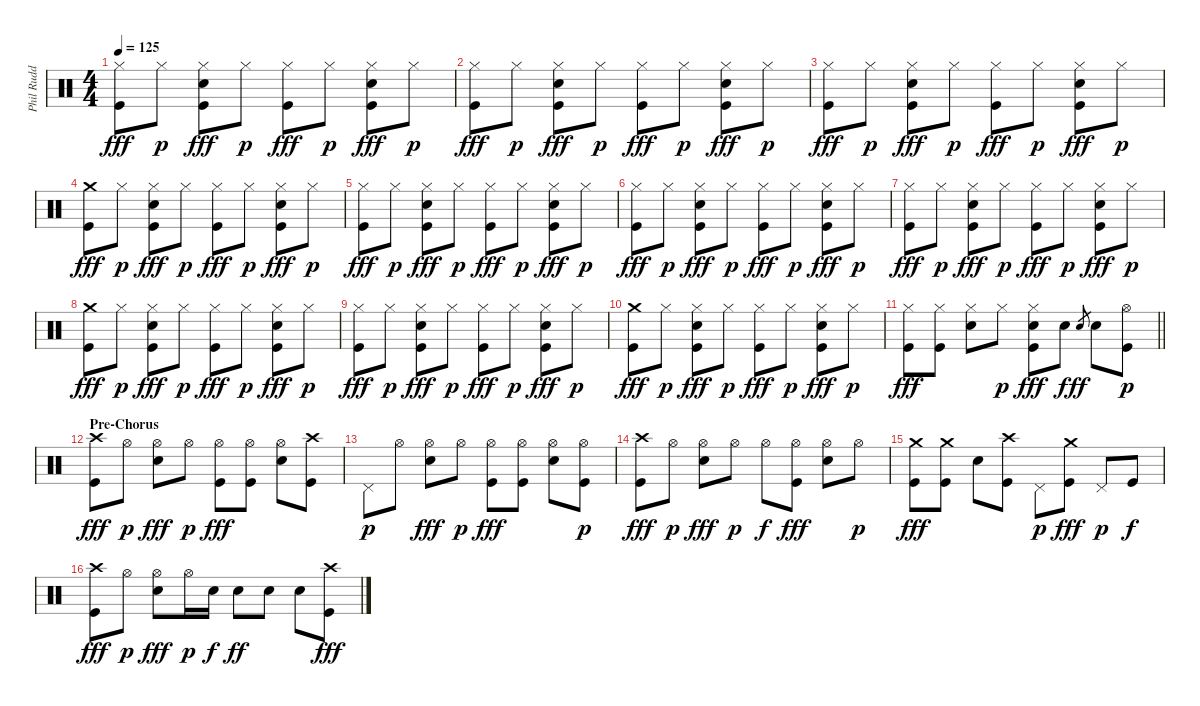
\track ("Phil Rudd" "Phil Rudd") {instrument percussion}
\staff {score}
\articulation defaults
\ts (4 4)
\tempo 125
\clef neutral
\ks c
("Hi-Hat (closed)" "Kick (hit)").8{dy fff} "Hi-Hat (closed)".8{dy p} ("Hi-Hat (closed)" "Snare (hit) 2" "Kick (hit)").8{dy fff} "Hi-Hat (closed)".8{dy p} ("Hi-Hat (closed)" "Kick (hit)").8{dy fff} "Hi-Hat (closed)".8{dy p} ("Hi-Hat (closed)" "Snare (hit) 2" "Kick (hit)").8{dy fff} "Hi-Hat (closed)".8{dy p} |
("Hi-Hat (closed)" "Kick (hit)").8{dy fff} "Hi-Hat (closed)".8{dy p} ("Hi-Hat (closed)" "Snare (hit) 2" "Kick (hit)").8{dy fff} "Hi-Hat (closed)".8{dy p} ("Hi-Hat (closed)" "Kick (hit)").8{dy fff} "Hi-Hat (closed)".8{dy p} ("Hi-Hat (closed)" "Snare (hit) 2" "Kick (hit)").8{dy fff} "Hi-Hat (closed)".8{dy p} |
("Hi-Hat (closed)" "Kick (hit)").8{dy fff} "Hi-Hat (closed)".8{dy p} ("Hi-Hat (closed)" "Snare (hit) 2" "Kick (hit)").8{dy fff} "Hi-Hat (closed)".8{dy p} ("Hi-Hat (closed)" "Kick (hit)").8{dy fff} "Hi-Hat (closed)".8{dy p} ("Hi-Hat (closed)" "Snare (hit) 2" "Kick (hit)").8{dy fff} "Hi-Hat (closed)".8{dy p} |
("Crash medium (hit)" "Kick (hit)").8{dy fff} "Hi-Hat (closed)".8{dy p} ("Hi-Hat (closed)" "Snare (hit) 2" "Kick (hit)").8{dy fff} "Hi-Hat (closed)".8{dy p} ("Hi-Hat (closed)" "Kick (hit)").8{dy fff} "Hi-Hat (closed)".8{dy p} ("Hi-Hat (closed)" "Snare (hit) 2" "Kick (hit)").8{dy fff} "Hi-Hat (closed)".8{dy p} |
("Hi-Hat (closed)" "Kick (hit)").8{dy fff} "Hi-Hat (closed)".8{dy p} ("Hi-Hat (closed)" "Snare (hit) 2" "Kick (hit)").8{dy fff} "Hi-Hat (closed)".8{dy p} ("Hi-Hat (closed)" "Kick (hit)").8{dy fff} "Hi-Hat (closed)".8{dy p} ("Hi-Hat (closed)" "Snare (hit) 2" "Kick (hit)").8{dy fff} "Hi-Hat (closed)".8{dy p} |
("Hi-Hat (closed)" "Kick (hit)").8{dy fff} "Hi-Hat (closed)".8{dy p} ("Hi-Hat (closed)" "Snare (hit) 2" "Kick (hit)").8{dy fff} "Hi-Hat (closed)".8{dy p} ("Hi-Hat (closed)" "Kick (hit)").8{dy fff} "Hi-Hat (closed)".8{dy p} ("Hi-Hat (closed)" "Snare (hit) 2" "Kick (hit)").8{dy fff} "Hi-Hat (closed)".8{dy p} |
("Hi-Hat (closed)" "Kick (hit)").8{dy fff} "Hi-Hat (closed)".8{dy p} ("Hi-Hat (closed)" "Snare (hit) 2" "Kick (hit)").8{dy fff} "Hi-Hat (closed)".8{dy p} ("Hi-Hat (closed)" "Kick (hit)").8{dy fff} "Hi-Hat (closed)".8{dy p} ("Hi-Hat (closed)" "Snare (hit) 2" "Kick (hit)").8{dy fff} "Hi-Hat (closed)".8{dy p} |
("Crash medium (hit)" "Kick (hit)").8{dy fff} "Hi-Hat (closed)".8{dy p} ("Hi-Hat (closed)" "Snare (hit) 2" "Kick (hit)").8{dy fff} "Hi-Hat (closed)".8{dy p} ("Hi-Hat (closed)" "Kick (hit)").8{dy fff} "Hi-Hat (closed)".8{dy p} ("Hi-Hat (closed)" "Snare (hit) 2" "Kick (hit)").8{dy fff} "Hi-Hat (closed)".8{dy p} |
("Hi-Hat (closed)" "Kick (hit)").8{dy fff} "Hi-Hat (closed)".8{dy p} ("Hi-Hat (closed)" "Snare (hit) 2" "Kick (hit)").8{dy fff} "Hi-Hat (closed)".8{dy p} ("Hi-Hat (closed)" "Kick (hit)").8{dy fff} "Hi-Hat (closed)".8{dy p} ("Hi-Hat (closed)" "Snare (hit) 2" "Kick (hit)").8{dy fff} "Hi-Hat (closed)".8{dy p} |
("Crash medium (hit)" "Kick (hit)").8{dy fff} "Hi-Hat (closed)".8{dy p} ("Hi-Hat (closed)" "Snare (hit) 2" "Kick (hit)").8{dy fff} "Hi-Hat (closed)".8{dy p} ("Hi-Hat (closed)" "Kick (hit)").8{dy fff} "Hi-Hat (closed)".8{dy p} ("Hi-Hat (closed)" "Snare (hit) 2" "Kick (hit)").8{dy fff} "Hi-Hat (closed)".8{dy p} |
\barLineRight lightlight
("Hi-Hat (closed)" "Kick (hit)").8{dy fff} ("Hi-Hat (closed)" "Kick (hit)").8 ("Hi-Hat (closed)" "Snare (hit) 2").8 "Hi-Hat (closed)".8{dy p} ("Hi-Hat (closed)" "Snare (hit) 2" "Kick (hit)").8{dy fff} "Snare (hit) 2".8{dy f} "Snare (hit) 2".8{gr dy ff} "Snare (hit) 2".8 ("Hi-Hat (open)" "Kick (hit)").8{dy p} |
\section ("" "Pre-Chorus")
("Crash high (hit)" "Kick (hit)").8{dy fff} "Hi-Hat (open)".8{dy p} ("Hi-Hat (open)" "Snare (hit) 2").8{dy fff} "Hi-Hat (open)".8{dy p} ("Hi-Hat (open)" "Kick (hit)").8{dy fff} ("Hi-Hat (open)" "Kick (hit)").8 ("Hi-Hat (open)" "Snare (hit) 2").8 ("Crash high (hit)" "Kick (hit)").8 |
"Pedal Hi-Hat (hit)".8{dy p} "Hi-Hat (open)".8 ("Hi-Hat (open)" "Snare (hit) 2").8{dy fff} "Hi-Hat (open)".8{dy p} ("Hi-Hat (open)" "Kick (hit)").8{dy fff} ("Hi-Hat (open)" "Kick (hit)").8 ("Hi-Hat (open)" "Snare (hit) 2").8 ("Hi-Hat (open)" "Kick (hit)").8{dy p} |
("Crash high (hit)" "Kick (hit)").8{dy fff} "Hi-Hat (open)".8{dy p} ("Hi-Hat (open)" "Snare (hit) 2").8{dy fff} "Hi-Hat (open)".8{dy p} "Hi-Hat (open)".8{dy f} ("Hi-Hat (open)" "Kick (hit)").8{dy fff} ("Hi-Hat (open)" "Snare (hit) 2").8 "Hi-Hat (open)".8{dy p} |
("Crash medium (hit)" "Kick (hit)").8{dy fff} ("Crash medium (hit)" "Kick (hit)").8 "Snare (hit) 2".8 ("Crash high (hit)" "Kick (hit)").8 "Pedal Hi-Hat (hit)".8{dy p} ("Crash medium (hit)" "Kick (hit)").8{dy fff} "Pedal Hi-Hat (hit)".8{dy p} "Kick (hit)".8{dy f} |
("Crash high (hit)" "Kick (hit)").8{dy fff} "Hi-Hat (open)".8{dy p} ("Hi-Hat (open)" "Snare (hit) 2").8{dy fff} "Hi-Hat (open)".16{dy p} "Snare (hit) 2".16{dy f} "Snare (hit) 2".8{dy ff} "Snare (hit) 2".8 "Snare (hit) 2".8 ("Crash high (hit)" "Kick (hit)").8{dy fff}
